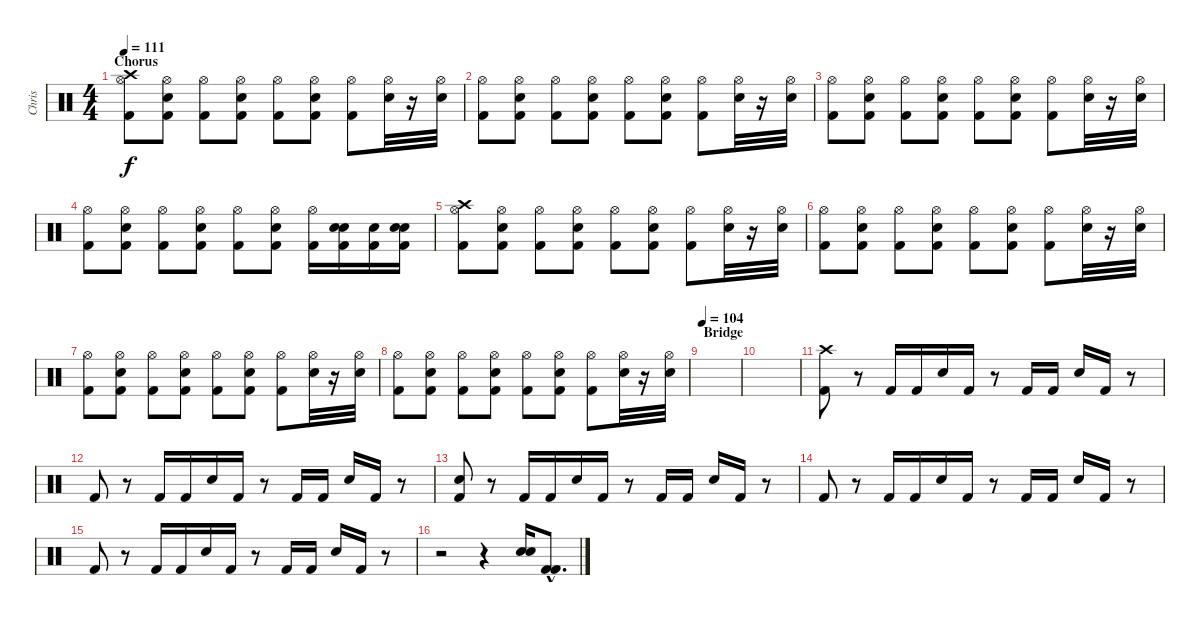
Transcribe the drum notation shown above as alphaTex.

\track ("Chris" "Chris") {instrument percussion}
\staff {score}
\articulation defaults
\ts (4 4)
\section ("" "Chorus")
\tempo 111
\clef neutral
\ks c
("Hi-Hat (open)" "Crash high (hit)" "Kick (hit) 2").8{dy f} ("Hi-Hat (open)" "Snare (hit) 2" "Kick (hit) 2").8 ("Hi-Hat (open)" "Kick (hit) 2").8 ("Hi-Hat (open)" "Snare (hit) 2" "Kick (hit) 2").8 ("Hi-Hat (open)" "Kick (hit) 2").8 ("Hi-Hat (open)" "Snare (hit) 2" "Kick (hit) 2").8 ("Hi-Hat (open)" "Kick (hit) 2").8 ("Hi-Hat (open)" "Snare (hit) 2").32 r.16 ("Hi-Hat (open)" "Snare (hit) 2").32 |
("Hi-Hat (open)" "Kick (hit) 2").8 ("Hi-Hat (open)" "Snare (hit) 2" "Kick (hit) 2").8 ("Hi-Hat (open)" "Kick (hit) 2").8 ("Hi-Hat (open)" "Snare (hit) 2" "Kick (hit) 2").8 ("Hi-Hat (open)" "Kick (hit) 2").8 ("Hi-Hat (open)" "Snare (hit) 2" "Kick (hit) 2").8 ("Hi-Hat (open)" "Kick (hit) 2").8 ("Hi-Hat (open)" "Snare (hit) 2").32 r.16 ("Hi-Hat (open)" "Snare (hit) 2").32 |
("Hi-Hat (open)" "Kick (hit) 2").8 ("Hi-Hat (open)" "Snare (hit) 2" "Kick (hit) 2").8 ("Hi-Hat (open)" "Kick (hit) 2").8 ("Hi-Hat (open)" "Snare (hit) 2" "Kick (hit) 2").8 ("Hi-Hat (open)" "Kick (hit) 2").8 ("Hi-Hat (open)" "Snare (hit) 2" "Kick (hit) 2").8 ("Hi-Hat (open)" "Kick (hit) 2").8 ("Hi-Hat (open)" "Snare (hit) 2").32 r.16 ("Hi-Hat (open)" "Snare (hit) 2").32 |
("Hi-Hat (open)" "Kick (hit) 2").8 ("Hi-Hat (open)" "Snare (hit) 2" "Kick (hit) 2").8 ("Hi-Hat (open)" "Kick (hit) 2").8 ("Hi-Hat (open)" "Snare (hit) 2" "Kick (hit) 2").8 ("Hi-Hat (open)" "Kick (hit) 2").8 ("Hi-Hat (open)" "Snare (hit) 2" "Kick (hit) 2").8 ("Hi-Hat (open)" "Kick (hit) 2").16 ("Snare (hit)" "Snare (hit) 2" "Kick (hit) 2").16 ("Snare (hit)" "Kick (hit) 2").16 ("Snare (hit)" "Snare (hit) 2" "Kick (hit) 2").16 |
("Hi-Hat (open)" "Crash high (hit)" "Kick (hit) 2").8 ("Hi-Hat (open)" "Snare (hit) 2" "Kick (hit) 2").8 ("Hi-Hat (open)" "Kick (hit) 2").8 ("Hi-Hat (open)" "Snare (hit) 2" "Kick (hit) 2").8 ("Hi-Hat (open)" "Kick (hit) 2").8 ("Hi-Hat (open)" "Snare (hit) 2" "Kick (hit) 2").8 ("Hi-Hat (open)" "Kick (hit) 2").8 ("Hi-Hat (open)" "Snare (hit) 2").32 r.16 ("Hi-Hat (open)" "Snare (hit) 2").32 |
("Hi-Hat (open)" "Kick (hit) 2").8 ("Hi-Hat (open)" "Snare (hit) 2" "Kick (hit) 2").8 ("Hi-Hat (open)" "Kick (hit) 2").8 ("Hi-Hat (open)" "Snare (hit) 2" "Kick (hit) 2").8 ("Hi-Hat (open)" "Kick (hit) 2").8 ("Hi-Hat (open)" "Snare (hit) 2" "Kick (hit) 2").8 ("Hi-Hat (open)" "Kick (hit) 2").8 ("Hi-Hat (open)" "Snare (hit) 2").32 r.16 ("Hi-Hat (open)" "Snare (hit) 2").32 |
("Hi-Hat (open)" "Kick (hit) 2").8 ("Hi-Hat (open)" "Snare (hit) 2" "Kick (hit) 2").8 ("Hi-Hat (open)" "Kick (hit) 2").8 ("Hi-Hat (open)" "Snare (hit) 2" "Kick (hit) 2").8 ("Hi-Hat (open)" "Kick (hit) 2").8 ("Hi-Hat (open)" "Snare (hit) 2" "Kick (hit) 2").8 ("Hi-Hat (open)" "Kick (hit) 2").8 ("Hi-Hat (open)" "Snare (hit) 2").32 r.16 ("Hi-Hat (open)" "Snare (hit) 2").32 |
("Hi-Hat (open)" "Kick (hit) 2").8 ("Hi-Hat (open)" "Snare (hit) 2" "Kick (hit) 2").8 ("Hi-Hat (open)" "Kick (hit) 2").8 ("Hi-Hat (open)" "Snare (hit) 2" "Kick (hit) 2").8 ("Hi-Hat (open)" "Kick (hit) 2").8 ("Hi-Hat (open)" "Snare (hit) 2" "Kick (hit) 2").8 ("Hi-Hat (open)" "Kick (hit) 2").8 ("Hi-Hat (open)" "Snare (hit) 2").32 r.16 ("Hi-Hat (open)" "Snare (hit) 2").32 |
\section ("" "Bridge")
\tempo 104
|
|
("Kick (hit) 2" "Crash high (hit)").8 r.8 "Kick (hit) 2".16 "Kick (hit) 2".16 "Snare (hit) 2".16 "Kick (hit) 2".16 r.8 "Kick (hit) 2".16 "Kick (hit) 2".16 "Snare (hit) 2".16 "Kick (hit) 2".16 r.8 |
"Kick (hit) 2".8 r.8 "Kick (hit) 2".16 "Kick (hit) 2".16 "Snare (hit) 2".16 "Kick (hit) 2".16 r.8 "Kick (hit) 2".16 "Kick (hit) 2".16 "Snare (hit) 2".16 "Kick (hit) 2".16 r.8 |
("Kick (hit) 2" "Snare (hit)").8 r.8 "Kick (hit) 2".16 "Kick (hit) 2".16 "Snare (hit) 2".16 "Kick (hit) 2".16 r.8 "Kick (hit) 2".16 "Kick (hit) 2".16 "Snare (hit) 2".16 "Kick (hit) 2".16 r.8 |
"Kick (hit) 2".8 r.8 "Kick (hit) 2".16 "Kick (hit) 2".16 "Snare (hit) 2".16 "Kick (hit) 2".16 r.8 "Kick (hit) 2".16 "Kick (hit) 2".16 "Snare (hit) 2".16 "Kick (hit) 2".16 r.8 |
"Kick (hit) 2".8 r.8 "Kick (hit) 2".16 "Kick (hit) 2".16 "Snare (hit) 2".16 "Kick (hit) 2".16 r.8 "Kick (hit) 2".16 "Kick (hit) 2".16 "Snare (hit) 2".16 "Kick (hit) 2".16 r.8 |
r.2 r.4 ("Snare (hit) 2" "Snare (hit) 2").16{volume 16} ("Kick (hit) 2"{hac} "Kick (hit) 2"{hac}).8{d}
